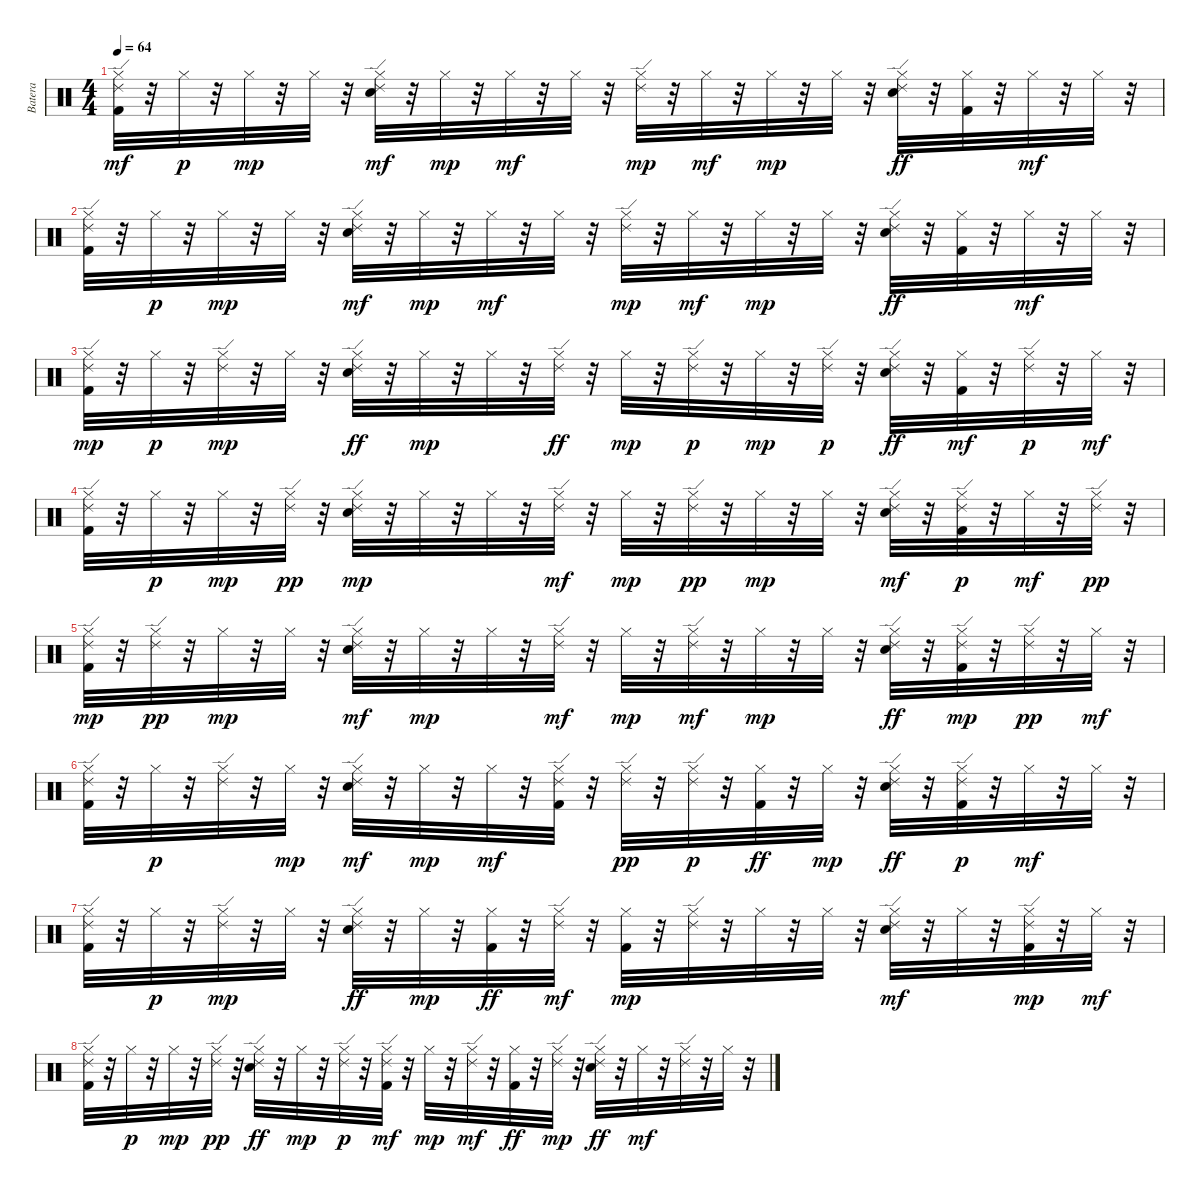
\track ("Batera" "Batera") {instrument percussion}
\staff {score}
\articulation defaults
\ts (4 4)
\tempo 64
\clef neutral
\ks c
("Hi-Hat (closed)" "Kick (hit) 2" "Ride (edge) 2").32{dy mf} r.32 "Hi-Hat (closed)".32{dy p} r.32 "Hi-Hat (closed)".32{dy mp} r.32 "Hi-Hat (closed)".32 r.32 ("Hi-Hat (closed)" "Snare (hit) 2" "Ride (edge) 2").32{dy mf} r.32 "Hi-Hat (closed)".32{dy mp} r.32 "Hi-Hat (closed)".32{dy mf} r.32 "Hi-Hat (closed)".32 r.32 ("Hi-Hat (closed)" "Ride (edge) 2").32{dy mp} r.32 "Hi-Hat (closed)".32{dy mf} r.32 "Hi-Hat (closed)".32{dy mp} r.32 "Hi-Hat (closed)".32 r.32 ("Hi-Hat (closed)" "Snare (hit) 2" "Ride (edge) 2").32{dy ff} r.32 ("Hi-Hat (closed)" "Kick (hit) 2").32 r.32 "Hi-Hat (closed)".32{dy mf} r.32 "Hi-Hat (closed)".32 r.32 |
("Hi-Hat (closed)" "Kick (hit) 2" "Ride (edge) 2").32 r.32 "Hi-Hat (closed)".32{dy p} r.32 "Hi-Hat (closed)".32{dy mp} r.32 "Hi-Hat (closed)".32 r.32 ("Hi-Hat (closed)" "Snare (hit) 2" "Ride (edge) 2").32{dy mf} r.32 "Hi-Hat (closed)".32{dy mp} r.32 "Hi-Hat (closed)".32{dy mf} r.32 "Hi-Hat (closed)".32 r.32 ("Hi-Hat (closed)" "Ride (edge) 2").32{dy mp} r.32 "Hi-Hat (closed)".32{dy mf} r.32 "Hi-Hat (closed)".32{dy mp} r.32 "Hi-Hat (closed)".32 r.32 ("Hi-Hat (closed)" "Snare (hit) 2" "Ride (edge) 2").32{dy ff} r.32 ("Hi-Hat (closed)" "Kick (hit) 2").32 r.32 "Hi-Hat (closed)".32{dy mf} r.32 "Hi-Hat (closed)".32 r.32 |
("Hi-Hat (closed)" "Ride (edge) 2" "Kick (hit) 2").32{dy mp} r.32 "Hi-Hat (closed)".32{dy p} r.32 ("Hi-Hat (closed)" "Ride (edge) 2").32{dy mp} r.32 "Hi-Hat (closed)".32 r.32 ("Hi-Hat (closed)" "Snare (hit) 2" "Ride (edge) 2").32{dy ff} r.32 "Hi-Hat (closed)".32{dy mp} r.32 "Hi-Hat (closed)".32 r.32 ("Hi-Hat (closed)" "Ride (edge) 2").32{dy ff} r.32 "Hi-Hat (closed)".32{dy mp} r.32 ("Hi-Hat (closed)" "Ride (edge) 2").32{dy p} r.32 "Hi-Hat (closed)".32{dy mp} r.32 ("Hi-Hat (closed)" "Ride (edge) 2").32{dy p} r.32 ("Hi-Hat (closed)" "Snare (hit) 2" "Ride (edge) 2").32{dy ff} r.32 ("Hi-Hat (closed)" "Kick (hit) 2").32{dy mf} r.32 ("Hi-Hat (closed)" "Ride (edge) 2").32{dy p} r.32 "Hi-Hat (closed)".32{dy mf} r.32 |
("Hi-Hat (closed)" "Kick (hit) 2" "Ride (edge) 2").32 r.32 "Hi-Hat (closed)".32{dy p} r.32 "Hi-Hat (closed)".32{dy mp} r.32 ("Hi-Hat (closed)" "Ride (edge) 2").32{dy pp} r.32 ("Hi-Hat (closed)" "Snare (hit) 2" "Ride (edge) 2").32{dy mp} r.32 "Hi-Hat (closed)".32 r.32 "Hi-Hat (closed)".32 r.32 ("Hi-Hat (closed)" "Ride (edge) 2").32{dy mf} r.32 "Hi-Hat (closed)".32{dy mp} r.32 ("Hi-Hat (closed)" "Ride (edge) 2").32{dy pp} r.32 "Hi-Hat (closed)".32{dy mp} r.32 "Hi-Hat (closed)".32 r.32 ("Hi-Hat (closed)" "Snare (hit) 2" "Ride (edge) 2").32{dy mf} r.32 ("Hi-Hat (closed)" "Kick (hit) 2" "Ride (edge) 2").32{dy p} r.32 "Hi-Hat (closed)".32{dy mf} r.32 ("Hi-Hat (closed)" "Ride (edge) 2").32{dy pp} r.32 |
("Hi-Hat (closed)" "Kick (hit) 2" "Ride (edge) 2").32{dy mp} r.32 ("Hi-Hat (closed)" "Ride (edge) 2").32{dy pp} r.32 "Hi-Hat (closed)".32{dy mp} r.32 "Hi-Hat (closed)".32 r.32 ("Hi-Hat (closed)" "Snare (hit) 2" "Ride (edge) 2").32{dy mf} r.32 "Hi-Hat (closed)".32{dy mp} r.32 "Hi-Hat (closed)".32 r.32 ("Hi-Hat (closed)" "Ride (edge) 2").32{dy mf} r.32 "Hi-Hat (closed)".32{dy mp} r.32 ("Hi-Hat (closed)" "Ride (edge) 2").32{dy mf} r.32 "Hi-Hat (closed)".32{dy mp} r.32 "Hi-Hat (closed)".32 r.32 ("Hi-Hat (closed)" "Ride (edge) 2" "Snare (hit) 2").32{dy ff} r.32 ("Hi-Hat (closed)" "Ride (edge) 2" "Kick (hit) 2").32{dy mp} r.32 ("Hi-Hat (closed)" "Ride (edge) 2").32{dy pp} r.32 "Hi-Hat (closed)".32{dy mf} r.32 |
("Hi-Hat (closed)" "Kick (hit) 2" "Ride (edge) 2").32 r.32 "Hi-Hat (closed)".32{dy p} r.32 ("Hi-Hat (closed)" "Ride (edge) 2").32 r.32 "Hi-Hat (closed)".32{dy mp} r.32 ("Hi-Hat (closed)" "Snare (hit) 2" "Ride (edge) 2").32{dy mf} r.32 "Hi-Hat (closed)".32{dy mp} r.32 "Hi-Hat (closed)".32{dy mf} r.32 ("Hi-Hat (closed)" "Kick (hit) 2" "Ride (edge) 2").32 r.32 ("Hi-Hat (closed)" "Ride (edge) 2").32{dy pp} r.32 ("Hi-Hat (closed)" "Ride (edge) 2").32{dy p} r.32 ("Hi-Hat (closed)" "Kick (hit) 2").32{dy ff} r.32 "Hi-Hat (closed)".32{dy mp} r.32 ("Hi-Hat (closed)" "Snare (hit) 2" "Ride (edge) 2").32{dy ff} r.32 ("Hi-Hat (closed)" "Kick (hit) 2" "Ride (edge) 2").32{dy p} r.32 "Hi-Hat (closed)".32{dy mf} r.32 "Hi-Hat (closed)".32 r.32 |
("Hi-Hat (closed)" "Kick (hit) 2" "Ride (edge) 2").32 r.32 "Hi-Hat (closed)".32{dy p} r.32 ("Hi-Hat (closed)" "Ride (edge) 2").32{dy mp} r.32 "Hi-Hat (closed)".32 r.32 ("Hi-Hat (closed)" "Snare (hit) 2" "Ride (edge) 2").32{dy ff} r.32 "Hi-Hat (closed)".32{dy mp} r.32 ("Hi-Hat (closed)" "Kick (hit) 2").32{dy ff} r.32 ("Hi-Hat (closed)" "Ride (edge) 2").32{dy mf} r.32 ("Hi-Hat (closed)" "Kick (hit) 2").32{dy mp} r.32 ("Hi-Hat (closed)" "Ride (edge) 2").32 r.32 "Hi-Hat (closed)".32 r.32 "Hi-Hat (closed)".32 r.32 ("Hi-Hat (closed)" "Snare (hit) 2" "Ride (edge) 2").32{dy mf} r.32 "Hi-Hat (closed)".32 r.32 ("Hi-Hat (closed)" "Kick (hit) 2" "Ride (edge) 2").32{dy mp} r.32 "Hi-Hat (closed)".32{dy mf} r.32 |
("Hi-Hat (closed)" "Kick (hit) 2" "Ride (edge) 2").32 r.32 "Hi-Hat (closed)".32{dy p} r.32 "Hi-Hat (closed)".32{dy mp} r.32 ("Hi-Hat (closed)" "Ride (edge) 2").32{dy pp} r.32 ("Hi-Hat (closed)" "Snare (hit) 2" "Ride (edge) 2").32{dy ff} r.32 "Hi-Hat (closed)".32{dy mp} r.32 ("Hi-Hat (closed)" "Ride (edge) 2").32{dy p} r.32 ("Hi-Hat (closed)" "Kick (hit) 2" "Ride (edge) 2").32{dy mf} r.32 "Hi-Hat (closed)".32{dy mp} r.32 ("Hi-Hat (closed)" "Ride (edge) 2").32{dy mf} r.32 ("Hi-Hat (closed)" "Kick (hit) 2").32{dy ff} r.32 ("Hi-Hat (closed)" "Ride (edge) 2").32{dy mp} r.32 ("Hi-Hat (closed)" "Snare (hit) 2" "Ride (edge) 2").32{dy ff} r.32 "Hi-Hat (closed)".32{dy mf} r.32 ("Hi-Hat (closed)" "Ride (edge) 2").32 r.32 "Hi-Hat (closed)".32 r.32
